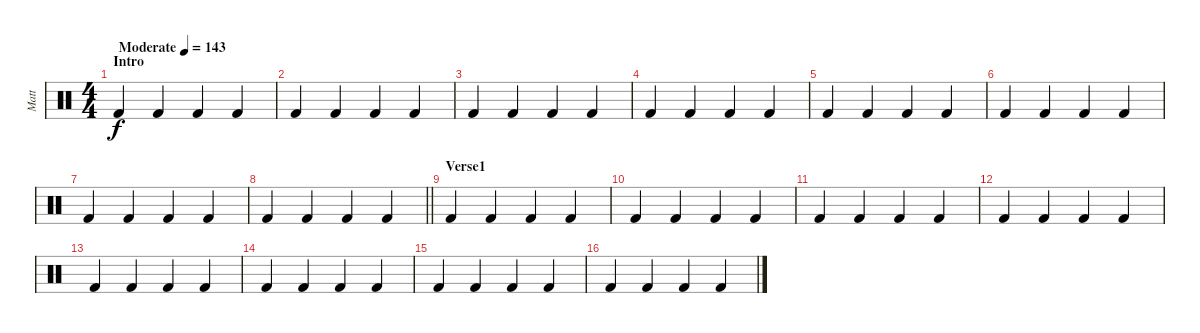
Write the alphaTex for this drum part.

\track ("Matt" "Matt") {instrument percussion}
\staff {score}
\articulation defaults
\ts (4 4)
\section ("" "Intro")
\tempo (143 "Moderate")
\clef neutral
\ks c "Kick (hit) 2".4{dy f} "Kick (hit) 2".4 "Kick (hit) 2".4 "Kick (hit) 2".4
|
"Kick (hit) 2".4 "Kick (hit) 2".4 "Kick (hit) 2".4 "Kick (hit) 2".4 |
"Kick (hit) 2".4 "Kick (hit) 2".4 "Kick (hit) 2".4 "Kick (hit) 2".4 |
"Kick (hit) 2".4 "Kick (hit) 2".4 "Kick (hit) 2".4 "Kick (hit) 2".4 |
"Kick (hit) 2".4 "Kick (hit) 2".4 "Kick (hit) 2".4 "Kick (hit) 2".4 |
"Kick (hit) 2".4 "Kick (hit) 2".4 "Kick (hit) 2".4 "Kick (hit) 2".4 |
"Kick (hit) 2".4 "Kick (hit) 2".4 "Kick (hit) 2".4 "Kick (hit) 2".4 |
\barLineRight lightlight "Kick (hit) 2".4 "Kick (hit) 2".4 "Kick (hit) 2".4 "Kick (hit) 2".4
|
\section ("" "Verse1")
"Kick (hit) 2".4 "Kick (hit) 2".4 "Kick (hit) 2".4 "Kick (hit) 2".4 |
"Kick (hit) 2".4 "Kick (hit) 2".4 "Kick (hit) 2".4 "Kick (hit) 2".4 |
"Kick (hit) 2".4 "Kick (hit) 2".4 "Kick (hit) 2".4 "Kick (hit) 2".4 |
"Kick (hit) 2".4 "Kick (hit) 2".4 "Kick (hit) 2".4 "Kick (hit) 2".4 |
"Kick (hit) 2".4 "Kick (hit) 2".4 "Kick (hit) 2".4 "Kick (hit) 2".4 |
"Kick (hit) 2".4 "Kick (hit) 2".4 "Kick (hit) 2".4 "Kick (hit) 2".4 |
"Kick (hit) 2".4 "Kick (hit) 2".4 "Kick (hit) 2".4 "Kick (hit) 2".4 |
"Kick (hit) 2".4 "Kick (hit) 2".4 "Kick (hit) 2".4 "Kick (hit) 2".4
